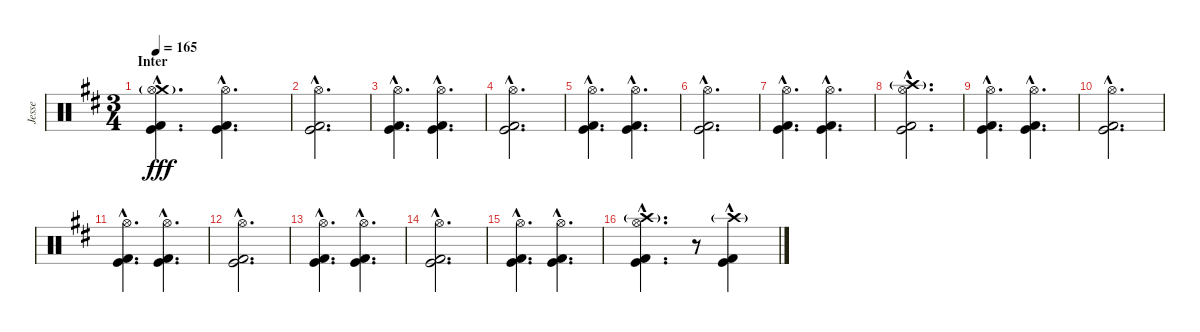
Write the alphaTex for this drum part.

\track ("Jesse" "Jesse") {instrument percussion}
\staff {score}
\articulation defaults
\ts (3 4)
\section ("" "Inter")
\tempo 165
\clef neutral
\ks d
("Crash medium (hit)"{g} "Hi-Hat (open)" "Kick (hit)"{hac} "Kick (hit) 2"{hac}).4{d dy fff} ("Hi-Hat (open)" "Kick (hit)"{hac} "Kick (hit) 2"{hac}).4{d} |
("Hi-Hat (open)" "Kick (hit)"{hac} "Kick (hit) 2"{hac}).2{d} |
("Hi-Hat (open)" "Kick (hit)"{hac} "Kick (hit) 2"{hac}).4{d} ("Hi-Hat (open)" "Kick (hit)"{hac} "Kick (hit) 2"{hac}).4{d} |
("Hi-Hat (open)" "Kick (hit)"{hac} "Kick (hit) 2"{hac}).2{d} |
("Hi-Hat (open)" "Kick (hit)"{hac} "Kick (hit) 2"{hac}).4{d} ("Hi-Hat (open)" "Kick (hit)"{hac} "Kick (hit) 2"{hac}).4{d} |
("Hi-Hat (open)" "Kick (hit)"{hac} "Kick (hit) 2"{hac}).2{d} |
("Hi-Hat (open)" "Kick (hit)"{hac} "Kick (hit) 2"{hac}).4{d} ("Hi-Hat (open)" "Kick (hit)"{hac} "Kick (hit) 2"{hac}).4{d} |
("Crash high (hit)"{g} "Hi-Hat (open)" "Kick (hit)"{hac} "Kick (hit) 2"{hac}).2{d} |
("Hi-Hat (open)" "Kick (hit)"{hac} "Kick (hit) 2"{hac}).4{d} ("Hi-Hat (open)" "Kick (hit)"{hac} "Kick (hit) 2"{hac}).4{d} |
("Hi-Hat (open)" "Kick (hit)"{hac} "Kick (hit) 2"{hac}).2{d} |
("Hi-Hat (open)" "Kick (hit)"{hac} "Kick (hit) 2"{hac}).4{d} ("Hi-Hat (open)" "Kick (hit)"{hac} "Kick (hit) 2"{hac}).4{d} |
("Hi-Hat (open)" "Kick (hit)"{hac} "Kick (hit) 2"{hac}).2{d} |
("Hi-Hat (open)" "Kick (hit)"{hac} "Kick (hit) 2"{hac}).4{d} ("Hi-Hat (open)" "Kick (hit)"{hac} "Kick (hit) 2"{hac}).4{d} |
("Hi-Hat (open)" "Kick (hit)"{hac} "Kick (hit) 2"{hac}).2{d} |
("Hi-Hat (open)" "Kick (hit)"{hac} "Kick (hit) 2"{hac}).4{d} ("Hi-Hat (open)" "Kick (hit)"{hac} "Kick (hit) 2"{hac}).4{d} |
("Crash high (hit)"{g} "Hi-Hat (open)" "Kick (hit)"{hac} "Kick (hit) 2"{hac}).4{d} r.8 ("Crash high (hit)"{g} "Kick (hit)"{hac} "Kick (hit) 2"{hac}).4
